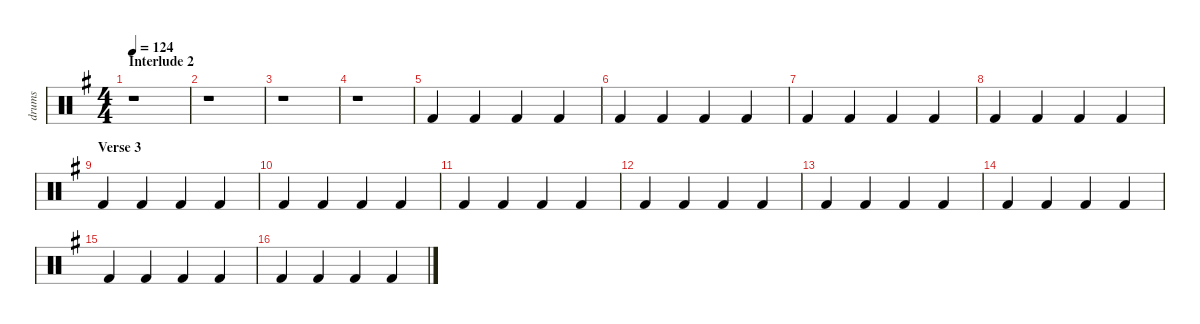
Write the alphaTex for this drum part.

\defaultSystemsLayout 4
\hideDynamics
\bracketExtendMode nobrackets
\otherSystemsTrackNameOrientation horizontal
\track ("drums" "drums") {instrument percussion}
\staff {score}
\articulation defaults
\ts (4 4)
\section ("" "Interlude 2")
\tempo 124
\clef neutral
\scale
1.07945
\ks eminor
r.1{dy mf beam Down} |
\scale
0.973518 r.1{beam Down} |
\scale
0.973518 r.1{beam Down} |
\scale
0.973518 r.1{beam Down} |
\scale
1.07945 "Kick (hit) 2"{acc forcenatural}.4{beam Up} "Kick (hit) 2"{acc forcenatural}.4{beam Up} "Kick (hit) 2"{acc forcenatural}.4{beam Up} "Kick (hit) 2"{acc forcenatural}.4{beam Up} |
\scale
0.973518 "Kick (hit) 2"{acc forcenatural}.4{beam Up} "Kick (hit) 2"{acc forcenatural}.4{beam Up} "Kick (hit) 2"{acc forcenatural}.4{beam Up} "Kick (hit) 2"{acc forcenatural}.4{beam Up} |
\scale
0.973518 "Kick (hit) 2"{acc forcenatural}.4{beam Up} "Kick (hit) 2"{acc forcenatural}.4{beam Up} "Kick (hit) 2"{acc forcenatural}.4{beam Up} "Kick (hit) 2"{acc forcenatural}.4{beam Up} |
\scale
0.973518 "Kick (hit) 2"{acc forcenatural}.4{beam Up} "Kick (hit) 2"{acc forcenatural}.4{beam Up} "Kick (hit) 2"{acc forcenatural}.4{beam Up} "Kick (hit) 2"{acc forcenatural}.4{beam Up} |
\section ("" "Verse 3")
\scale
1.07945 "Kick (hit) 2"{acc forcenatural}.4{beam Up} "Kick (hit) 2"{acc forcenatural}.4{beam Up} "Kick (hit) 2"{acc forcenatural}.4{beam Up} "Kick (hit) 2"{acc forcenatural}.4{beam Up} |
\scale
0.973518 "Kick (hit) 2"{acc forcenatural}.4{beam Up} "Kick (hit) 2"{acc forcenatural}.4{beam Up} "Kick (hit) 2"{acc forcenatural}.4{beam Up} "Kick (hit) 2"{acc forcenatural}.4{beam Up} |
\scale
0.973518 "Kick (hit) 2"{acc forcenatural}.4{beam Up} "Kick (hit) 2"{acc forcenatural}.4{beam Up} "Kick (hit) 2"{acc forcenatural}.4{beam Up} "Kick (hit) 2"{acc forcenatural}.4{beam Up} |
\scale
0.973518 "Kick (hit) 2"{acc forcenatural}.4{beam Up} "Kick (hit) 2"{acc forcenatural}.4{beam Up} "Kick (hit) 2"{acc forcenatural}.4{beam Up} "Kick (hit) 2"{acc forcenatural}.4{beam Up} |
\scale
1.07945 "Kick (hit) 2"{acc forcenatural}.4{beam Up} "Kick (hit) 2"{acc forcenatural}.4{beam Up} "Kick (hit) 2"{acc forcenatural}.4{beam Up} "Kick (hit) 2"{acc forcenatural}.4{beam Up} |
\scale
0.973518 "Kick (hit) 2"{acc forcenatural}.4{beam Up} "Kick (hit) 2"{acc forcenatural}.4{beam Up} "Kick (hit) 2"{acc forcenatural}.4{beam Up} "Kick (hit) 2"{acc forcenatural}.4{beam Up} |
\scale
0.973518 "Kick (hit) 2"{acc forcenatural}.4{beam Up} "Kick (hit) 2"{acc forcenatural}.4{beam Up} "Kick (hit) 2"{acc forcenatural}.4{beam Up} "Kick (hit) 2"{acc forcenatural}.4{beam Up} |
\scale
0.973518 "Kick (hit) 2"{acc forcenatural}.4{beam Up} "Kick (hit) 2"{acc forcenatural}.4{beam Up} "Kick (hit) 2"{acc forcenatural}.4{beam Up} "Kick (hit) 2"{acc forcenatural}.4{beam Up}
